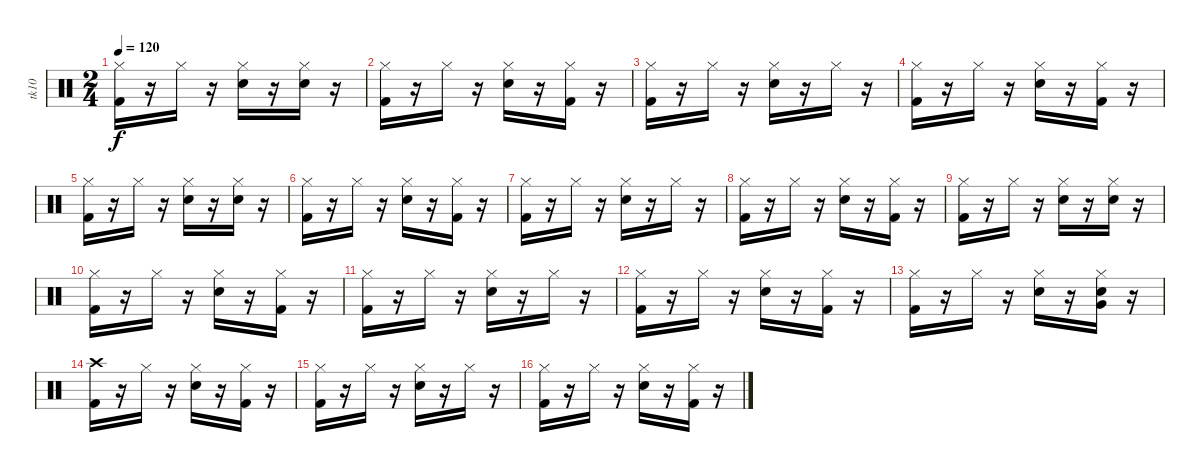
\track ("tk10" "tk10") {instrument percussion}
\staff {score}
\articulation defaults
\ts (2 4)
\tempo 120
\clef neutral
\ks c
("Kick (hit) 2" "Hi-Hat (closed)").16{dy f} r.16 "Hi-Hat (closed)".16 r.16 ("Snare (hit) 2" "Hi-Hat (closed)").16 r.16 ("Hi-Hat (closed)" "Snare (hit) 2").16 r.16 |
("Hi-Hat (closed)" "Kick (hit) 2").16 r.16 "Hi-Hat (closed)".16 r.16 ("Snare (hit) 2" "Hi-Hat (closed)").16 r.16 ("Hi-Hat (closed)" "Kick (hit) 2").16 r.16 |
("Kick (hit) 2" "Hi-Hat (closed)").16 r.16 "Hi-Hat (closed)".16 r.16 ("Snare (hit) 2" "Hi-Hat (closed)").16 r.16 "Hi-Hat (closed)".16 r.16 |
("Kick (hit) 2" "Hi-Hat (closed)").16 r.16 "Hi-Hat (closed)".16 r.16 ("Snare (hit) 2" "Hi-Hat (closed)").16 r.16 ("Hi-Hat (closed)" "Kick (hit) 2").16 r.16 |
("Hi-Hat (closed)" "Kick (hit) 2").16 r.16 "Hi-Hat (closed)".16 r.16 ("Snare (hit) 2" "Hi-Hat (closed)").16 r.16 ("Snare (hit) 2" "Hi-Hat (closed)").16 r.16 |
("Hi-Hat (closed)" "Kick (hit) 2").16 r.16 "Hi-Hat (closed)".16 r.16 ("Hi-Hat (closed)" "Snare (hit) 2").16 r.16 ("Kick (hit) 2" "Hi-Hat (closed)").16 r.16 |
("Kick (hit) 2" "Hi-Hat (closed)").16 r.16 "Hi-Hat (closed)".16 r.16 ("Snare (hit) 2" "Hi-Hat (closed)").16 r.16 "Hi-Hat (closed)".16 r.16 |
("Hi-Hat (closed)" "Kick (hit) 2").16 r.16 "Hi-Hat (closed)".16 r.16 ("Hi-Hat (closed)" "Snare (hit) 2").16 r.16 ("Hi-Hat (closed)" "Kick (hit) 2").16 r.16 |
("Hi-Hat (closed)" "Kick (hit) 2").16 r.16 "Hi-Hat (closed)".16 r.16 ("Hi-Hat (closed)" "Snare (hit) 2").16 r.16 ("Hi-Hat (closed)" "Snare (hit) 2").16 r.16 |
("Hi-Hat (closed)" "Kick (hit) 2").16 r.16 "Hi-Hat (closed)".16 r.16 ("Snare (hit) 2" "Hi-Hat (closed)").16 r.16 ("Kick (hit) 2" "Hi-Hat (closed)").16 r.16 |
("Hi-Hat (closed)" "Kick (hit) 2").16 r.16 "Hi-Hat (closed)".16 r.16 ("Snare (hit) 2" "Hi-Hat (closed)").16 r.16 "Hi-Hat (closed)".16 r.16 |
("Hi-Hat (closed)" "Kick (hit) 2").16 r.16 "Hi-Hat (closed)".16 r.16 ("Snare (hit) 2" "Hi-Hat (closed)").16 r.16 ("Kick (hit) 2" "Hi-Hat (closed)").16 r.16 |
("Kick (hit) 2" "Hi-Hat (closed)").16 r.16 "Hi-Hat (closed)".16 r.16 ("Hi-Hat (closed)" "Snare (hit) 2").16 r.16 ("Snare (hit) 2" "Hi-Hat (closed)" "Very Low Tom (hit)").16 r.16 |
("Crash high (hit)" "Kick (hit) 2").16 r.16 "Hi-Hat (closed)".16 r.16 ("Hi-Hat (closed)" "Snare (hit) 2").16 r.16 ("Kick (hit) 2" "Hi-Hat (closed)").16 r.16 |
("Hi-Hat (closed)" "Kick (hit) 2").16 r.16 "Hi-Hat (closed)".16 r.16 ("Snare (hit) 2" "Hi-Hat (closed)").16 r.16 "Hi-Hat (closed)".16 r.16 |
("Hi-Hat (closed)" "Kick (hit) 2").16 r.16 "Hi-Hat (closed)".16 r.16 ("Snare (hit) 2" "Hi-Hat (closed)").16 r.16 ("Hi-Hat (closed)" "Kick (hit) 2").16 r.16
